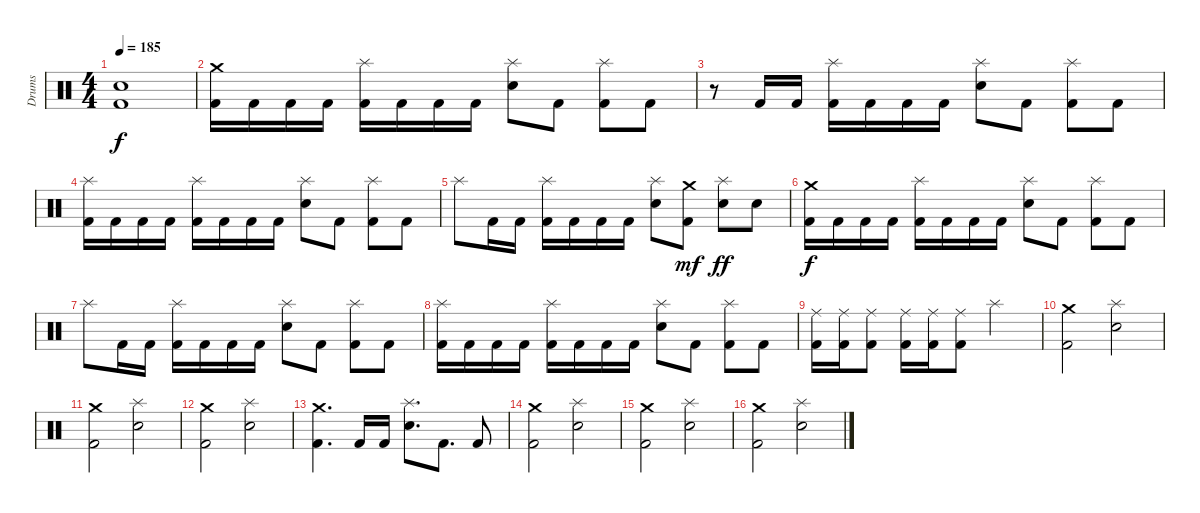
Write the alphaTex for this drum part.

\track ("Drums" "Drums") {instrument percussion}
\staff {score}
\articulation defaults
\ts (4 4)
\tempo 185
\clef neutral
\ks c
("Snare (hit) 2" "Kick (hit) 2").1{dy f} |
("Crash medium (hit)" "Kick (hit) 2").16 "Kick (hit) 2".16 "Kick (hit) 2".16 "Kick (hit) 2".16 ("Splash (hit)" "Kick (hit) 2").16 "Kick (hit) 2".16 "Kick (hit) 2".16 "Kick (hit) 2".16 ("Splash (hit)" "Snare (hit) 2").8 "Kick (hit) 2".8 ("Splash (hit)" "Kick (hit) 2").8 "Kick (hit) 2".8 |
r.8 "Kick (hit) 2".16 "Kick (hit) 2".16 ("Splash (hit)" "Kick (hit) 2").16 "Kick (hit) 2".16 "Kick (hit) 2".16 "Kick (hit) 2".16 ("Splash (hit)" "Snare (hit) 2").8 "Kick (hit) 2".8 ("Splash (hit)" "Kick (hit) 2").8 "Kick (hit) 2".8 |
("Splash (hit)" "Kick (hit) 2").16 "Kick (hit) 2".16 "Kick (hit) 2".16 "Kick (hit) 2".16 ("Splash (hit)" "Kick (hit) 2").16 "Kick (hit) 2".16 "Kick (hit) 2".16 "Kick (hit) 2".16 ("Splash (hit)" "Snare (hit) 2").8 "Kick (hit) 2".8 ("Splash (hit)" "Kick (hit) 2").8 "Kick (hit) 2".8 |
"Splash (hit)".8 "Kick (hit) 2".16 "Kick (hit) 2".16 ("Splash (hit)" "Kick (hit) 2").16 "Kick (hit) 2".16 "Kick (hit) 2".16 "Kick (hit) 2".16 ("Splash (hit)" "Snare (hit) 2").8 ("Crash medium (hit)" "Kick (hit) 2").8{dy mf} ("Splash (hit)" "Snare (hit) 2").8{dy ff} "Snare (hit) 2".8 |
("Crash medium (hit)" "Kick (hit) 2").16{dy f} "Kick (hit) 2".16 "Kick (hit) 2".16 "Kick (hit) 2".16 ("Splash (hit)" "Kick (hit) 2").16 "Kick (hit) 2".16 "Kick (hit) 2".16 "Kick (hit) 2".16 ("Splash (hit)" "Snare (hit) 2").8 "Kick (hit) 2".8 ("Splash (hit)" "Kick (hit) 2").8 "Kick (hit) 2".8 |
"Splash (hit)".8 "Kick (hit) 2".16 "Kick (hit) 2".16 ("Splash (hit)" "Kick (hit) 2").16 "Kick (hit) 2".16 "Kick (hit) 2".16 "Kick (hit) 2".16 ("Splash (hit)" "Snare (hit) 2").8 "Kick (hit) 2".8 ("Splash (hit)" "Kick (hit) 2").8 "Kick (hit) 2".8 |
("Splash (hit)" "Kick (hit) 2").16 "Kick (hit) 2".16 "Kick (hit) 2".16 "Kick (hit) 2".16 ("Splash (hit)" "Kick (hit) 2").16 "Kick (hit) 2".16 "Kick (hit) 2".16 "Kick (hit) 2".16 ("Splash (hit)" "Snare (hit) 2").8 "Kick (hit) 2".8 ("Splash (hit)" "Kick (hit) 2").8 "Kick (hit) 2".8 |
("Ride (middle)" "Kick (hit) 2").16 ("Ride (middle)" "Kick (hit) 2").16 ("Ride (middle)" "Kick (hit) 2").8 ("Ride (middle)" "Kick (hit) 2").16 ("Ride (middle)" "Kick (hit) 2").16 ("Ride (middle)" "Kick (hit) 2").8 "Splash (hit)".2 |
("Crash medium (hit)" "Kick (hit) 2").2 ("Splash (hit)" "Snare (hit) 2").2 |
("Crash medium (hit)" "Kick (hit) 2").2 ("Splash (hit)" "Snare (hit) 2").2 |
("Crash medium (hit)" "Kick (hit) 2").2 ("Splash (hit)" "Snare (hit) 2").2 |
("Crash medium (hit)" "Kick (hit) 2").4{d} "Kick (hit) 2".16 "Kick (hit) 2".16 ("Splash (hit)" "Snare (hit) 2").8{d} "Kick (hit) 2".8{d} "Kick (hit) 2".8 |
("Crash medium (hit)" "Kick (hit) 2").2 ("Splash (hit)" "Snare (hit) 2").2 |
("Crash medium (hit)" "Kick (hit) 2").2 ("Splash (hit)" "Snare (hit) 2").2 |
("Crash medium (hit)" "Kick (hit) 2").2 ("Splash (hit)" "Snare (hit) 2").2
